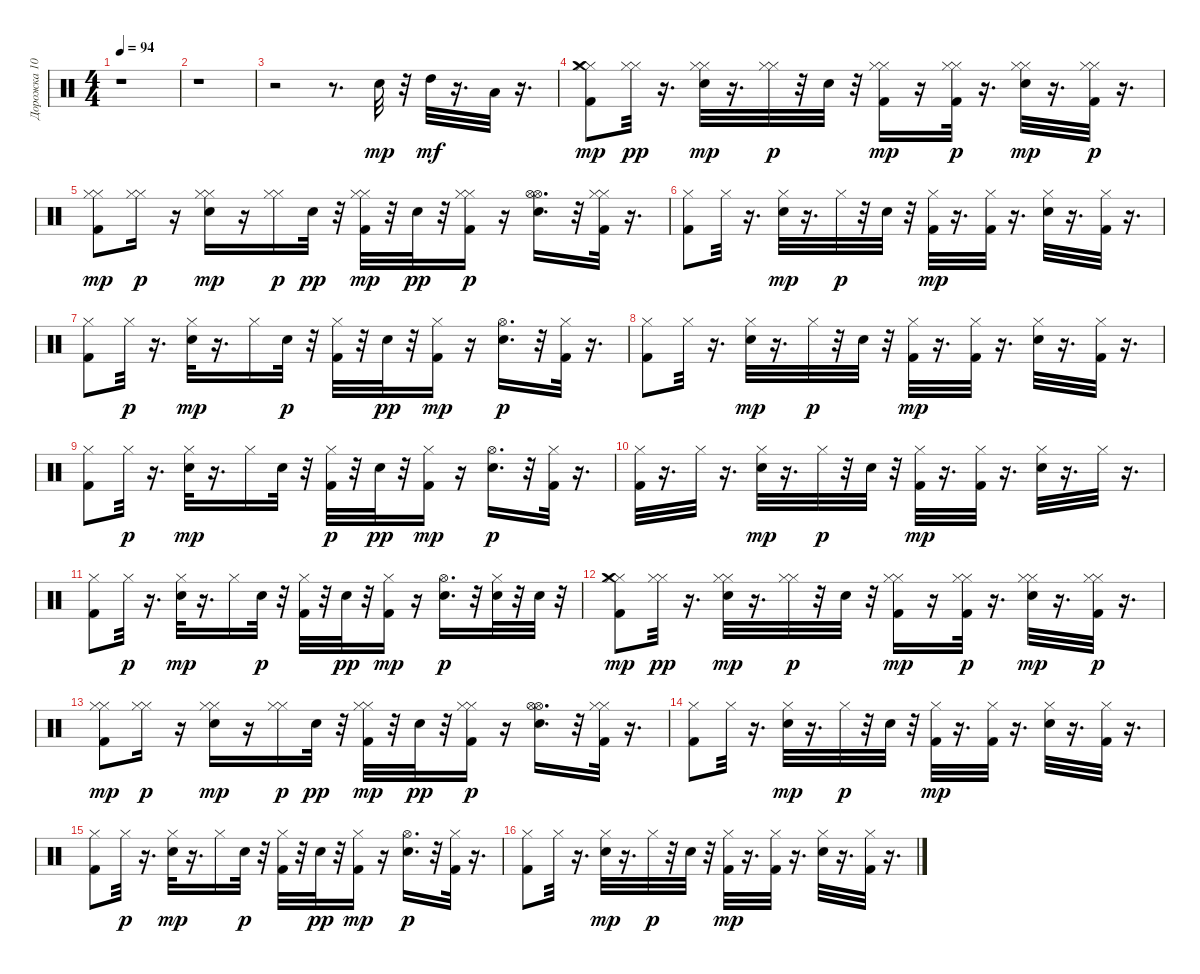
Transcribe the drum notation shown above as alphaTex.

\track ("Дорожка 10" "Дорожка 10") {instrument percussion}
\staff {score}
\articulation defaults
\ts (4 4)
\tempo 94
\clef neutral
\ks c
r.1{dy pp} |
r.1 |
r.2 r.8{d} "Electric Snare (hit)".32{dy mp} r.32 "High Tom (hit)".32{dy mf} r.16{d} "Low Tom (hit)".32 r.16{d} |
("Kick (hit) 2" "Hi-Hat (closed)" "Hi-Hat (closed)" "Crash medium (hit)").8{dy mp} ("Hi-Hat (closed)" "Hi-Hat (closed)").32{dy pp} r.16{d} ("Electric Snare (hit)" "Hi-Hat (closed)" "Hi-Hat (closed)").32{dy mp} r.16{d} ("Hi-Hat (closed)" "Hi-Hat (closed)").32{dy p} r.32 "Electric Snare (hit)".32 r.32 ("Kick (hit) 2" "Hi-Hat (closed)" "Hi-Hat (closed)").16{dy mp} r.16 ("Kick (hit) 2" "Hi-Hat (closed)" "Hi-Hat (closed)").32{dy p} r.16{d} ("Electric Snare (hit)" "Hi-Hat (closed)" "Hi-Hat (closed)").32{dy mp} r.16{d} ("Kick (hit) 2" "Hi-Hat (closed)" "Hi-Hat (closed)").32{dy p} r.16{d} |
("Kick (hit) 2" "Hi-Hat (closed)" "Hi-Hat (closed)").8{dy mp} ("Hi-Hat (closed)" "Hi-Hat (closed)").16{dy p} r.16 ("Electric Snare (hit)" "Hi-Hat (closed)" "Hi-Hat (closed)").16{dy mp} r.16 ("Hi-Hat (closed)" "Hi-Hat (closed)").16{dy p} "Electric Snare (hit)".32{dy pp} r.32 ("Kick (hit) 2" "Hi-Hat (closed)" "Hi-Hat (closed)").32{dy mp} r.32 "Electric Snare (hit)".32{dy pp} r.32 ("Kick (hit) 2" "Hi-Hat (closed)" "Hi-Hat (closed)").16{dy p} r.16 ("Electric Snare (hit)" "Hi-Hat (open)" "Hi-Hat (open)").16{d} r.32 ("Kick (hit) 2" "Hi-Hat (closed)" "Hi-Hat (closed)").32 r.16{d} |
("Kick (hit) 2" "Hi-Hat (closed)").8 "Hi-Hat (closed)".32 r.16{d} ("Electric Snare (hit)" "Hi-Hat (closed)").32{dy mp} r.16{d} "Hi-Hat (closed)".32{dy p} r.32 "Electric Snare (hit)".32 r.32 ("Kick (hit) 2" "Hi-Hat (closed)").32{dy mp} r.16{d} ("Kick (hit) 2" "Hi-Hat (closed)").32 r.16{d} ("Electric Snare (hit)" "Hi-Hat (closed)").32 r.16{d} ("Kick (hit) 2" "Hi-Hat (closed)").32 r.16{d} |
("Kick (hit) 2" "Hi-Hat (closed)").8 "Hi-Hat (closed)".32{dy p} r.16{d} ("Electric Snare (hit)" "Hi-Hat (closed)").32{dy mp} r.16{d} "Hi-Hat (closed)".16 "Electric Snare (hit)".32{dy p} r.32 ("Kick (hit) 2" "Hi-Hat (closed)").32 r.32 "Electric Snare (hit)".32{dy pp} r.32 ("Kick (hit) 2" "Hi-Hat (closed)").16{dy mp} r.16 ("Electric Snare (hit)" "Hi-Hat (open)").16{d dy p} r.32 ("Kick (hit) 2" "Hi-Hat (closed)").32 r.16{d} |
("Kick (hit) 2" "Hi-Hat (closed)").8 "Hi-Hat (closed)".32 r.16{d} ("Electric Snare (hit)" "Hi-Hat (closed)").32{dy mp} r.16{d} "Hi-Hat (closed)".32{dy p} r.32 "Electric Snare (hit)".32 r.32 ("Kick (hit) 2" "Hi-Hat (closed)").32{dy mp} r.16{d} ("Kick (hit) 2" "Hi-Hat (closed)").32 r.16{d} ("Electric Snare (hit)" "Hi-Hat (closed)").32 r.16{d} ("Kick (hit) 2" "Hi-Hat (closed)").32 r.16{d} |
("Kick (hit) 2" "Hi-Hat (closed)").8 "Hi-Hat (closed)".32{dy p} r.16{d} ("Electric Snare (hit)" "Hi-Hat (closed)").32{dy mp} r.16{d} "Hi-Hat (closed)".16 "Electric Snare (hit)".32 r.32 ("Kick (hit) 2" "Hi-Hat (closed)").32{dy p} r.32 "Electric Snare (hit)".32{dy pp} r.32 ("Kick (hit) 2" "Hi-Hat (closed)").16{dy mp} r.16 ("Electric Snare (hit)" "Hi-Hat (open)").16{d dy p} r.32 ("Kick (hit) 2" "Hi-Hat (closed)").32 r.16{d} |
("Kick (hit) 2" "Hi-Hat (closed)").32 r.16{d} "Hi-Hat (closed)".32 r.16{d} ("Electric Snare (hit)" "Hi-Hat (closed)").32{dy mp} r.16{d} "Hi-Hat (closed)".32{dy p} r.32 "Electric Snare (hit)".32 r.32 ("Kick (hit) 2" "Hi-Hat (closed)").32{dy mp} r.16{d} ("Kick (hit) 2" "Hi-Hat (closed)").32 r.16{d} ("Electric Snare (hit)" "Hi-Hat (closed)").32 r.16{d} "Hi-Hat (closed)".32 r.16{d} |
("Kick (hit) 2" "Hi-Hat (closed)").8 "Hi-Hat (closed)".32{dy p} r.16{d} ("Electric Snare (hit)" "Hi-Hat (closed)").32{dy mp} r.16{d} "Hi-Hat (closed)".16 "Electric Snare (hit)".32{dy p} r.32 ("Kick (hit) 2" "Hi-Hat (closed)").32 r.32 "Electric Snare (hit)".32{dy pp} r.32 ("Kick (hit) 2" "Hi-Hat (closed)").16{dy mp} r.16 ("Electric Snare (hit)" "Hi-Hat (open)").16{d dy p} r.32 ("Electric Snare (hit)" "Hi-Hat (closed)").32 r.32 "Electric Snare (hit)".32 r.32 |
("Kick (hit) 2" "Hi-Hat (closed)" "Hi-Hat (closed)" "Crash medium (hit)").8{dy mp} ("Hi-Hat (closed)" "Hi-Hat (closed)").32{dy pp} r.16{d} ("Electric Snare (hit)" "Hi-Hat (closed)" "Hi-Hat (closed)").32{dy mp} r.16{d} ("Hi-Hat (closed)" "Hi-Hat (closed)").32{dy p} r.32 "Electric Snare (hit)".32 r.32 ("Kick (hit) 2" "Hi-Hat (closed)" "Hi-Hat (closed)").16{dy mp} r.16 ("Kick (hit) 2" "Hi-Hat (closed)" "Hi-Hat (closed)").32{dy p} r.16{d} ("Electric Snare (hit)" "Hi-Hat (closed)" "Hi-Hat (closed)").32{dy mp} r.16{d} ("Kick (hit) 2" "Hi-Hat (closed)" "Hi-Hat (closed)").32{dy p} r.16{d} |
("Kick (hit) 2" "Hi-Hat (closed)" "Hi-Hat (closed)").8{dy mp} ("Hi-Hat (closed)" "Hi-Hat (closed)").16{dy p} r.16 ("Electric Snare (hit)" "Hi-Hat (closed)" "Hi-Hat (closed)").16{dy mp} r.16 ("Hi-Hat (closed)" "Hi-Hat (closed)").16{dy p} "Electric Snare (hit)".32{dy pp} r.32 ("Kick (hit) 2" "Hi-Hat (closed)" "Hi-Hat (closed)").32{dy mp} r.32 "Electric Snare (hit)".32{dy pp} r.32 ("Kick (hit) 2" "Hi-Hat (closed)" "Hi-Hat (closed)").16{dy p} r.16 ("Electric Snare (hit)" "Hi-Hat (open)" "Hi-Hat (open)").16{d} r.32 ("Kick (hit) 2" "Hi-Hat (closed)" "Hi-Hat (closed)").32 r.16{d} |
("Kick (hit) 2" "Hi-Hat (closed)").8 "Hi-Hat (closed)".32 r.16{d} ("Electric Snare (hit)" "Hi-Hat (closed)").32{dy mp} r.16{d} "Hi-Hat (closed)".32{dy p} r.32 "Electric Snare (hit)".32 r.32 ("Kick (hit) 2" "Hi-Hat (closed)").32{dy mp} r.16{d} ("Kick (hit) 2" "Hi-Hat (closed)").32 r.16{d} ("Electric Snare (hit)" "Hi-Hat (closed)").32 r.16{d} ("Kick (hit) 2" "Hi-Hat (closed)").32 r.16{d} |
("Kick (hit) 2" "Hi-Hat (closed)").8 "Hi-Hat (closed)".32{dy p} r.16{d} ("Electric Snare (hit)" "Hi-Hat (closed)").32{dy mp} r.16{d} "Hi-Hat (closed)".16 "Electric Snare (hit)".32{dy p} r.32 ("Kick (hit) 2" "Hi-Hat (closed)").32 r.32 "Electric Snare (hit)".32{dy pp} r.32 ("Kick (hit) 2" "Hi-Hat (closed)").16{dy mp} r.16 ("Electric Snare (hit)" "Hi-Hat (open)").16{d dy p} r.32 ("Kick (hit) 2" "Hi-Hat (closed)").32 r.16{d} |
("Kick (hit) 2" "Hi-Hat (closed)").8 "Hi-Hat (closed)".32 r.16{d} ("Electric Snare (hit)" "Hi-Hat (closed)").32{dy mp} r.16{d} "Hi-Hat (closed)".32{dy p} r.32 "Electric Snare (hit)".32 r.32 ("Kick (hit) 2" "Hi-Hat (closed)").32{dy mp} r.16{d} ("Kick (hit) 2" "Hi-Hat (closed)").32 r.16{d} ("Electric Snare (hit)" "Hi-Hat (closed)").32 r.16{d} ("Kick (hit) 2" "Hi-Hat (closed)").32 r.16{d}
